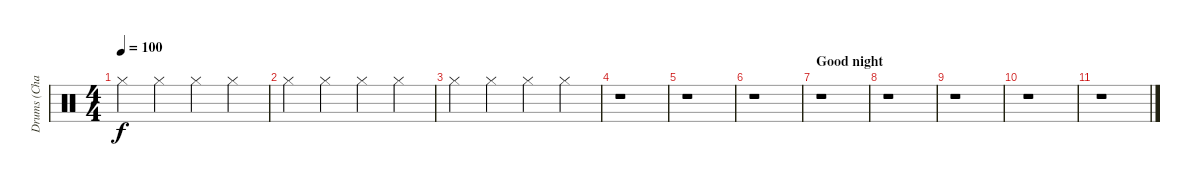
\track ("Drums (Charlie)" "Drums (Cha") {instrument percussion}
\staff {score}
\articulation defaults
\ts (4 4)
\tempo 100
\clef neutral
\ks c "Hi-Hat (closed)".4{dy f} "Hi-Hat (closed)".4 "Hi-Hat (closed)".4 "Hi-Hat (closed)".4
|
"Hi-Hat (closed)".4 "Hi-Hat (closed)".4 "Hi-Hat (closed)".4 "Hi-Hat (closed)".4 |
"Hi-Hat (closed)".4 "Hi-Hat (closed)".4 "Hi-Hat (closed)".4 "Hi-Hat (closed)".4 |
r.1 |
r.1 |
r.1 |
\section ("" "Good night")
r.1 |
r.1 |
r.1 |
r.1 |
r.1
